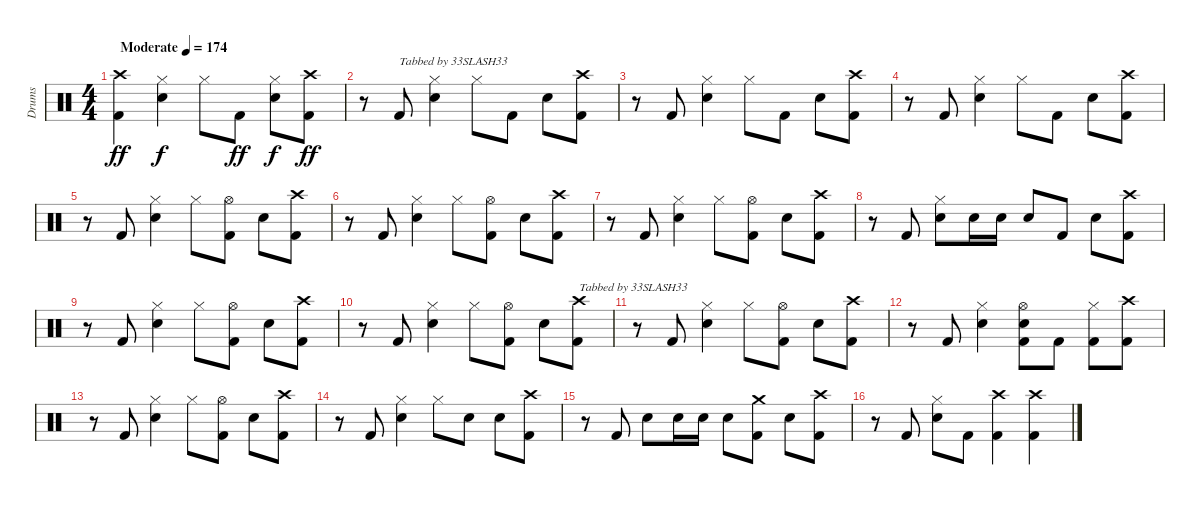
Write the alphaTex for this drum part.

\track ("Drums" "Drums") {instrument percussion}
\staff {score}
\articulation defaults
\ts (4 4)
\tempo (174 "Moderate")
\clef neutral
\ks c
("Crash high (hit)" "Kick (hit) 2").4{dy ff} ("Hi-Hat (closed)" "Snare (hit) 2").4{dy f} "Hi-Hat (closed)".8 "Kick (hit) 2".8{dy ff} ("Hi-Hat (closed)" "Snare (hit) 2").8{dy f} ("Crash high (hit)" "Kick (hit) 2").8{dy ff} |
r.8 "Kick (hit) 2".8{txt "Tabbed by 33SLASH33"} ("Hi-Hat (closed)" "Snare (hit) 2").4 "Hi-Hat (closed)".8 "Kick (hit) 2".8 "Snare (hit) 2".8 ("Crash high (hit)" "Kick (hit) 2").8 |
r.8 "Kick (hit) 2".8 ("Hi-Hat (closed)" "Snare (hit) 2").4 "Hi-Hat (closed)".8 "Kick (hit) 2".8 "Snare (hit) 2".8 ("Crash high (hit)" "Kick (hit) 2").8 |
r.8 "Kick (hit) 2".8 ("Hi-Hat (closed)" "Snare (hit) 2").4 "Hi-Hat (closed)".8 "Kick (hit) 2".8 "Snare (hit) 2".8 ("Crash high (hit)" "Kick (hit) 2").8 |
r.8 "Kick (hit) 2".8 ("Hi-Hat (closed)" "Snare (hit) 2").4 "Hi-Hat (closed)".8 ("Hi-Hat (open)" "Kick (hit) 2").8 "Snare (hit) 2".8 ("Crash high (hit)" "Kick (hit) 2").8 |
r.8 "Kick (hit) 2".8 ("Hi-Hat (closed)" "Snare (hit) 2").4 "Hi-Hat (closed)".8 ("Hi-Hat (open)" "Kick (hit) 2").8 "Snare (hit) 2".8 ("Crash high (hit)" "Kick (hit) 2").8 |
r.8 "Kick (hit) 2".8 ("Hi-Hat (closed)" "Snare (hit) 2").4 "Hi-Hat (closed)".8 ("Hi-Hat (open)" "Kick (hit) 2").8 "Snare (hit) 2".8 ("Crash high (hit)" "Kick (hit) 2").8 |
r.8 "Kick (hit) 2".8 ("Hi-Hat (closed)" "Snare (hit) 2").8 "Snare (hit) 2".16 "Snare (hit) 2".16 "Snare (hit) 2".8 "Kick (hit) 2".8 "Snare (hit) 2".8 ("Crash high (hit)" "Kick (hit) 2").8 |
r.8 "Kick (hit) 2".8 ("Hi-Hat (closed)" "Snare (hit) 2").4 "Hi-Hat (closed)".8 ("Hi-Hat (open)" "Kick (hit) 2").8 "Snare (hit) 2".8 ("Crash high (hit)" "Kick (hit) 2").8 |
r.8 "Kick (hit) 2".8 ("Hi-Hat (closed)" "Snare (hit) 2").4 "Hi-Hat (closed)".8 ("Hi-Hat (open)" "Kick (hit) 2").8 "Snare (hit) 2".8 ("Crash high (hit)" "Kick (hit) 2").8{txt "Tabbed by 33SLASH33"} |
r.8 "Kick (hit) 2".8 ("Hi-Hat (closed)" "Snare (hit) 2").4 "Hi-Hat (closed)".8 ("Hi-Hat (open)" "Kick (hit) 2").8 "Snare (hit) 2".8 ("Crash high (hit)" "Kick (hit) 2").8 |
r.8 "Kick (hit) 2".8 ("Hi-Hat (closed)" "Snare (hit) 2").4 ("Hi-Hat (open)" "Snare (hit) 2" "Kick (hit) 2").8 "Kick (hit) 2".8 ("Hi-Hat (closed)" "Kick (hit) 2").8 ("Crash high (hit)" "Kick (hit) 2").8 |
r.8 "Kick (hit) 2".8 ("Hi-Hat (closed)" "Snare (hit) 2").4 "Hi-Hat (closed)".8 ("Hi-Hat (open)" "Kick (hit) 2").8 "Snare (hit) 2".8 ("Crash high (hit)" "Kick (hit) 2").8 |
r.8 "Kick (hit) 2".8 ("Hi-Hat (closed)" "Snare (hit) 2").4 "Hi-Hat (closed)".8 "Snare (hit) 2".8 "Snare (hit) 2".8 ("Crash high (hit)" "Kick (hit) 2").8 |
r.8 "Kick (hit) 2".8 "Snare (hit) 2".8 "Snare (hit) 2".16 "Snare (hit) 2".16 "Snare (hit) 2".8 ("Crash medium (hit)" "Kick (hit) 2").8 "Snare (hit) 2".8 ("Crash high (hit)" "Kick (hit) 2").8 |
r.8 "Kick (hit) 2".8 ("Hi-Hat (closed)" "Snare (hit) 2").8 "Kick (hit) 2".8 ("Crash high (hit)" "Kick (hit) 2").4 ("Crash high (hit)" "Kick (hit) 2").4
